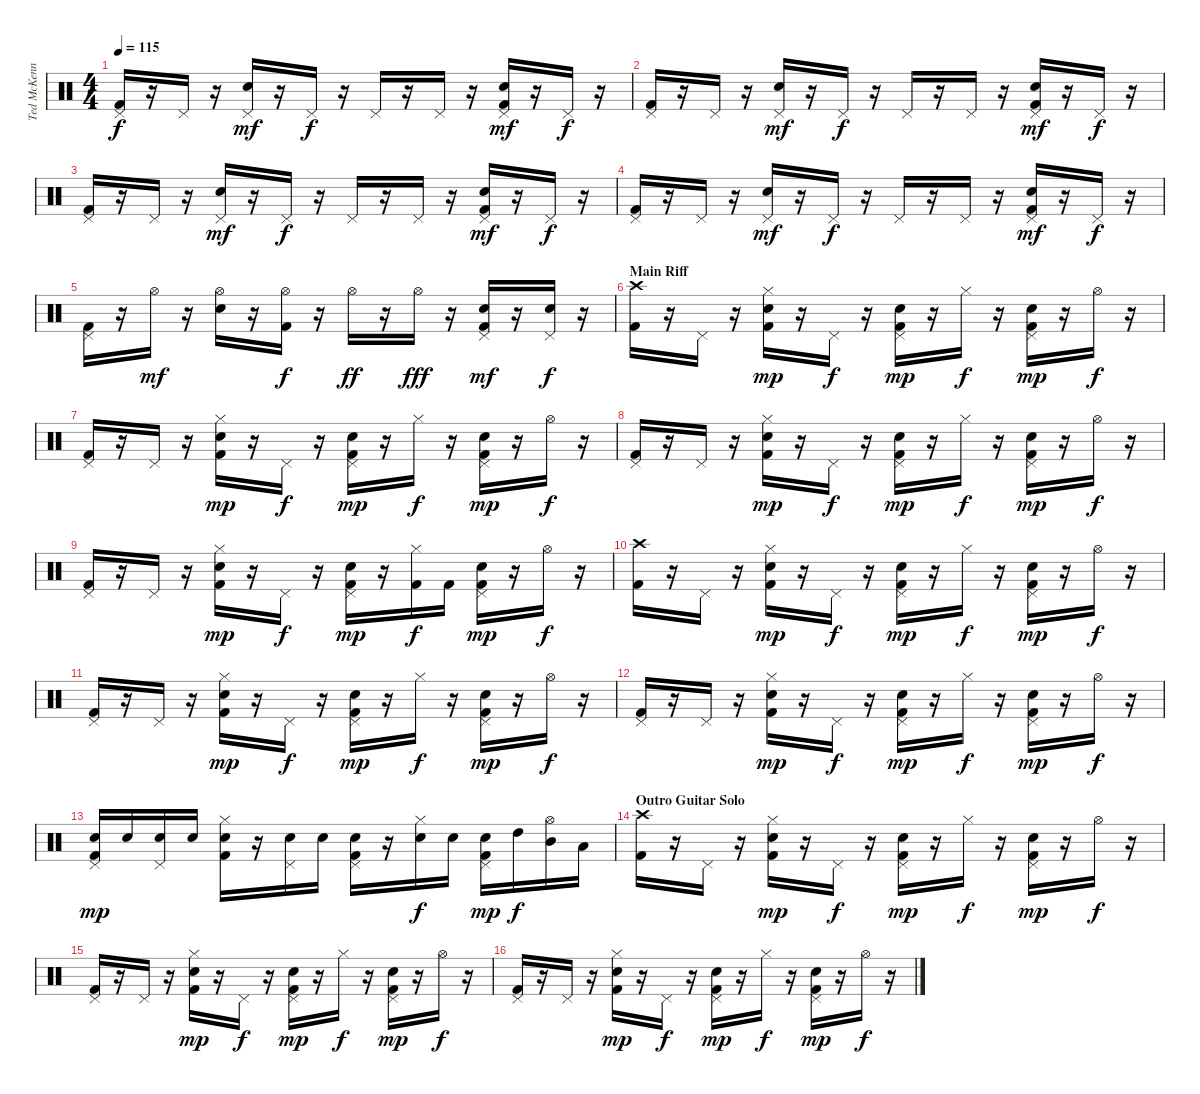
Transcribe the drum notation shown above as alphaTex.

\track ("Ted McKenna" "Ted McKenn") {instrument percussion}
\staff {score}
\articulation defaults
\ts (4 4)
\tempo 115
\clef neutral
\ks c
("Pedal Hi-Hat (hit)" "Kick (hit) 2").16{dy f} r.16 "Pedal Hi-Hat (hit)".16 r.16 ("Electric Snare (hit)" "Pedal Hi-Hat (hit)").16{dy mf} r.16 "Pedal Hi-Hat (hit)".16{dy f} r.16 "Pedal Hi-Hat (hit)".16 r.16 "Pedal Hi-Hat (hit)".16 r.16 ("Electric Snare (hit)" "Pedal Hi-Hat (hit)" "Kick (hit) 2").16{dy mf} r.16 "Pedal Hi-Hat (hit)".16{dy f} r.16 |
("Pedal Hi-Hat (hit)" "Kick (hit) 2").16 r.16 "Pedal Hi-Hat (hit)".16 r.16 ("Electric Snare (hit)" "Pedal Hi-Hat (hit)").16{dy mf} r.16 "Pedal Hi-Hat (hit)".16{dy f} r.16 "Pedal Hi-Hat (hit)".16 r.16 "Pedal Hi-Hat (hit)".16 r.16 ("Electric Snare (hit)" "Pedal Hi-Hat (hit)" "Kick (hit) 2").16{dy mf} r.16 "Pedal Hi-Hat (hit)".16{dy f} r.16 |
("Pedal Hi-Hat (hit)" "Kick (hit) 2").16 r.16 "Pedal Hi-Hat (hit)".16 r.16 ("Electric Snare (hit)" "Pedal Hi-Hat (hit)").16{dy mf} r.16 "Pedal Hi-Hat (hit)".16{dy f} r.16 "Pedal Hi-Hat (hit)".16 r.16 "Pedal Hi-Hat (hit)".16 r.16 ("Electric Snare (hit)" "Pedal Hi-Hat (hit)" "Kick (hit) 2").16{dy mf} r.16 "Pedal Hi-Hat (hit)".16{dy f} r.16 |
("Pedal Hi-Hat (hit)" "Kick (hit) 2").16 r.16 "Pedal Hi-Hat (hit)".16 r.16 ("Electric Snare (hit)" "Pedal Hi-Hat (hit)").16{dy mf} r.16 "Pedal Hi-Hat (hit)".16{dy f} r.16 "Pedal Hi-Hat (hit)".16 r.16 "Pedal Hi-Hat (hit)".16 r.16 ("Electric Snare (hit)" "Pedal Hi-Hat (hit)" "Kick (hit) 2").16{dy mf} r.16 "Pedal Hi-Hat (hit)".16{dy f} r.16 |
("Pedal Hi-Hat (hit)" "Kick (hit) 2").16 r.16 "Hi-Hat (open)".16{dy mf} r.16 ("Electric Snare (hit)" "Hi-Hat (open)").16 r.16 ("Hi-Hat (open)" "Kick (hit) 2").16{dy f} r.16 "Hi-Hat (open)".16{dy ff} r.16 "Hi-Hat (open)".16{dy fff} r.16 ("Electric Snare (hit)" "Pedal Hi-Hat (hit)" "Kick (hit) 2").16{dy mf} r.16 ("Electric Snare (hit)" "Pedal Hi-Hat (hit)").16{dy f} r.16 |
\section ("" "Main Riff")
("Crash high (hit)" "Kick (hit) 2").16 r.16 "Pedal Hi-Hat (hit)".16 r.16 ("Electric Snare (hit)" "Hi-Hat (closed)" "Kick (hit) 2").16{dy mp} r.16 "Pedal Hi-Hat (hit)".16{dy f} r.16 ("Electric Snare (hit)" "Pedal Hi-Hat (hit)" "Kick (hit) 2").16{dy mp} r.16 "Hi-Hat (closed)".16{dy f} r.16 ("Electric Snare (hit)" "Pedal Hi-Hat (hit)" "Kick (hit) 2").16{dy mp} r.16 "Hi-Hat (open)".16{dy f} r.16 |
("Pedal Hi-Hat (hit)" "Kick (hit) 2").16 r.16 "Pedal Hi-Hat (hit)".16 r.16 ("Electric Snare (hit)" "Hi-Hat (closed)" "Kick (hit) 2").16{dy mp} r.16 "Pedal Hi-Hat (hit)".16{dy f} r.16 ("Electric Snare (hit)" "Pedal Hi-Hat (hit)" "Kick (hit) 2").16{dy mp} r.16 "Hi-Hat (closed)".16{dy f} r.16 ("Electric Snare (hit)" "Pedal Hi-Hat (hit)" "Kick (hit) 2").16{dy mp} r.16 "Hi-Hat (open)".16{dy f} r.16 |
("Pedal Hi-Hat (hit)" "Kick (hit) 2").16 r.16 "Pedal Hi-Hat (hit)".16 r.16 ("Electric Snare (hit)" "Hi-Hat (closed)" "Kick (hit) 2").16{dy mp} r.16 "Pedal Hi-Hat (hit)".16{dy f} r.16 ("Electric Snare (hit)" "Pedal Hi-Hat (hit)" "Kick (hit) 2").16{dy mp} r.16 "Hi-Hat (closed)".16{dy f} r.16 ("Electric Snare (hit)" "Pedal Hi-Hat (hit)" "Kick (hit) 2").16{dy mp} r.16 "Hi-Hat (open)".16{dy f} r.16 |
("Pedal Hi-Hat (hit)" "Kick (hit) 2").16 r.16 "Pedal Hi-Hat (hit)".16 r.16 ("Electric Snare (hit)" "Hi-Hat (closed)" "Kick (hit) 2").16{dy mp} r.16 "Pedal Hi-Hat (hit)".16{dy f} r.16 ("Electric Snare (hit)" "Pedal Hi-Hat (hit)" "Kick (hit) 2").16{dy mp} r.16 ("Hi-Hat (closed)" "Kick (hit) 2").16{dy f} "Kick (hit) 2".16 ("Electric Snare (hit)" "Pedal Hi-Hat (hit)" "Kick (hit) 2").16{dy mp} r.16 "Hi-Hat (open)".16{dy f} r.16 |
("Crash high (hit)" "Kick (hit) 2").16 r.16 "Pedal Hi-Hat (hit)".16 r.16 ("Electric Snare (hit)" "Hi-Hat (closed)" "Kick (hit) 2").16{dy mp} r.16 "Pedal Hi-Hat (hit)".16{dy f} r.16 ("Electric Snare (hit)" "Pedal Hi-Hat (hit)" "Kick (hit) 2").16{dy mp} r.16 "Hi-Hat (closed)".16{dy f} r.16 ("Electric Snare (hit)" "Pedal Hi-Hat (hit)" "Kick (hit) 2").16{dy mp} r.16 "Hi-Hat (open)".16{dy f} r.16 |
("Pedal Hi-Hat (hit)" "Kick (hit) 2").16 r.16 "Pedal Hi-Hat (hit)".16 r.16 ("Electric Snare (hit)" "Hi-Hat (closed)" "Kick (hit) 2").16{dy mp} r.16 "Pedal Hi-Hat (hit)".16{dy f} r.16 ("Electric Snare (hit)" "Pedal Hi-Hat (hit)" "Kick (hit) 2").16{dy mp} r.16 "Hi-Hat (closed)".16{dy f} r.16 ("Electric Snare (hit)" "Pedal Hi-Hat (hit)" "Kick (hit) 2").16{dy mp} r.16 "Hi-Hat (open)".16{dy f} r.16 |
("Pedal Hi-Hat (hit)" "Kick (hit) 2").16 r.16 "Pedal Hi-Hat (hit)".16 r.16 ("Electric Snare (hit)" "Hi-Hat (closed)" "Kick (hit) 2").16{dy mp} r.16 "Pedal Hi-Hat (hit)".16{dy f} r.16 ("Electric Snare (hit)" "Pedal Hi-Hat (hit)" "Kick (hit) 2").16{dy mp} r.16 "Hi-Hat (closed)".16{dy f} r.16 ("Electric Snare (hit)" "Pedal Hi-Hat (hit)" "Kick (hit) 2").16{dy mp} r.16 "Hi-Hat (open)".16{dy f} r.16 |
("Snare (hit) 2" "Pedal Hi-Hat (hit)" "Kick (hit) 2").16{dy mp} "Snare (hit) 2".16 ("Snare (hit) 2" "Pedal Hi-Hat (hit)").16 "Snare (hit) 2".16 ("Electric Snare (hit)" "Hi-Hat (closed)" "Kick (hit) 2").16 r.16 ("Snare (hit) 2" "Pedal Hi-Hat (hit)").16 "Snare (hit) 2".16 ("Electric Snare (hit)" "Pedal Hi-Hat (hit)" "Kick (hit) 2").16 r.16 ("Snare (hit) 2" "Hi-Hat (closed)").16{dy f} "Snare (hit) 2".16 ("Electric Snare (hit)" "Pedal Hi-Hat (hit)" "Kick (hit) 2").16{dy mp} "High Tom (hit)".16{dy f} ("Mid Tom (hit)" "Hi-Hat (open)").16 "Low Tom (hit)".16 |
\section ("" "Outro Guitar Solo")
("Crash high (hit)" "Kick (hit) 2").16 r.16 "Pedal Hi-Hat (hit)".16 r.16 ("Electric Snare (hit)" "Hi-Hat (closed)" "Kick (hit) 2").16{dy mp} r.16 "Pedal Hi-Hat (hit)".16{dy f} r.16 ("Electric Snare (hit)" "Pedal Hi-Hat (hit)" "Kick (hit) 2").16{dy mp} r.16 "Hi-Hat (closed)".16{dy f} r.16 ("Electric Snare (hit)" "Pedal Hi-Hat (hit)" "Kick (hit) 2").16{dy mp} r.16 "Hi-Hat (open)".16{dy f} r.16 |
("Pedal Hi-Hat (hit)" "Kick (hit) 2").16 r.16 "Pedal Hi-Hat (hit)".16 r.16 ("Electric Snare (hit)" "Hi-Hat (closed)" "Kick (hit) 2").16{dy mp} r.16 "Pedal Hi-Hat (hit)".16{dy f} r.16 ("Electric Snare (hit)" "Pedal Hi-Hat (hit)" "Kick (hit) 2").16{dy mp} r.16 "Hi-Hat (closed)".16{dy f} r.16 ("Electric Snare (hit)" "Pedal Hi-Hat (hit)" "Kick (hit) 2").16{dy mp} r.16 "Hi-Hat (open)".16{dy f} r.16 |
("Pedal Hi-Hat (hit)" "Kick (hit) 2").16 r.16 "Pedal Hi-Hat (hit)".16 r.16 ("Electric Snare (hit)" "Hi-Hat (closed)" "Kick (hit) 2").16{dy mp} r.16 "Pedal Hi-Hat (hit)".16{dy f} r.16 ("Electric Snare (hit)" "Pedal Hi-Hat (hit)" "Kick (hit) 2").16{dy mp} r.16 "Hi-Hat (closed)".16{dy f} r.16 ("Electric Snare (hit)" "Pedal Hi-Hat (hit)" "Kick (hit) 2").16{dy mp} r.16 "Hi-Hat (open)".16{dy f} r.16
